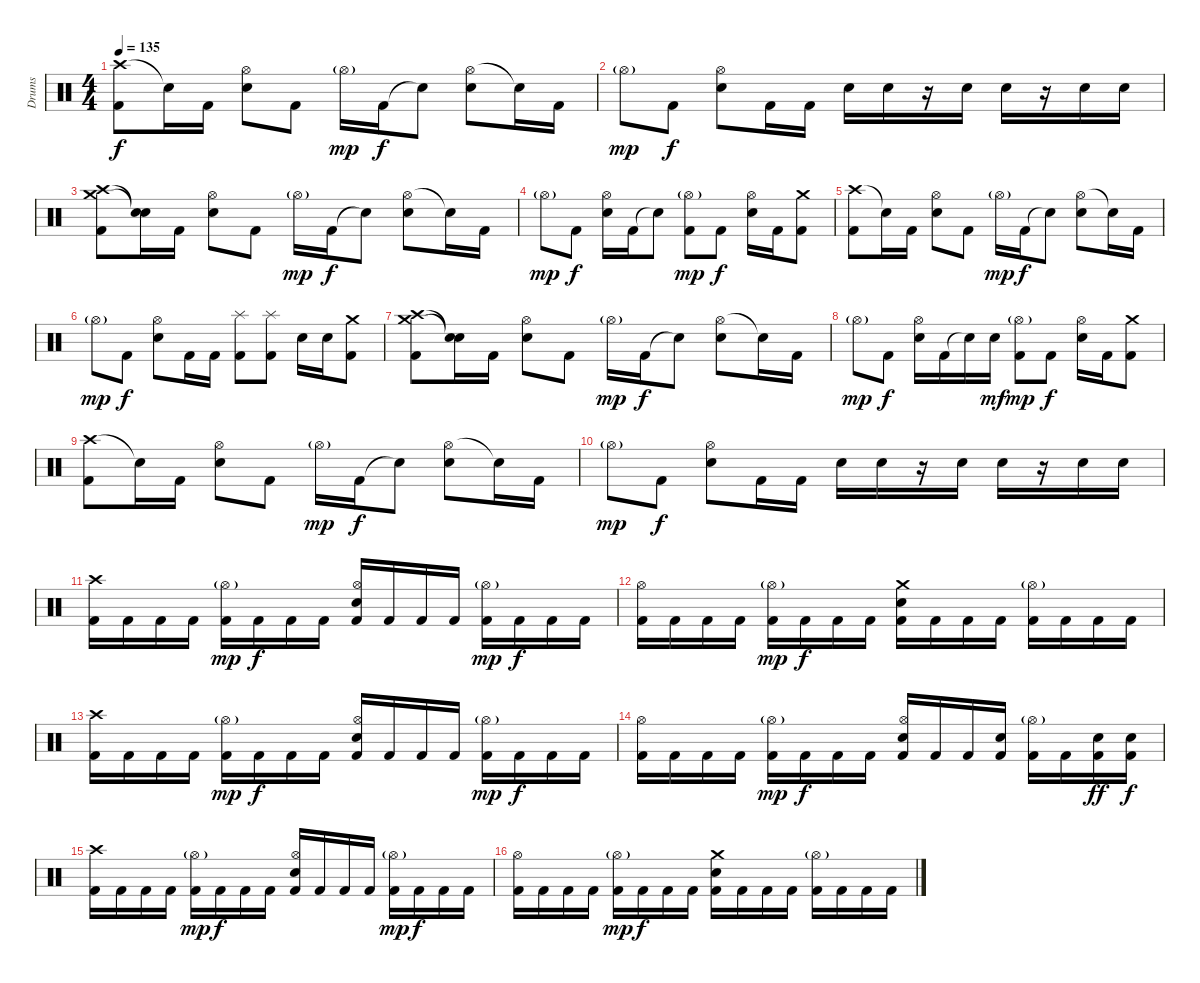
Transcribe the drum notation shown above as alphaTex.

\track ("Drums" "Drums") {instrument percussion}
\staff {score}
\articulation defaults
\ts (4 4)
\tempo 135
\clef neutral
\ks c
("Crash high (hit)" "Kick (hit) 2").8{dy f} "Snare (hit)"{t}.16 "Kick (hit) 2".16 ("Hi-Hat (open)" "Electric Snare (hit)").8 "Kick (hit) 2".8 "Hi-Hat (open)"{g}.16{dy mp} "Kick (hit) 2".16{dy f} "Snare (hit)"{t}.8 ("Hi-Hat (open)" "Electric Snare (hit)").8 "Snare (hit)"{t}.16 "Kick (hit) 2".16 |
"Hi-Hat (open)"{g}.8{dy mp} "Kick (hit) 2".8{dy f} ("Hi-Hat (open)" "Electric Snare (hit)").8 "Kick (hit) 2".16 "Kick (hit) 2".16 "Electric Snare (hit)".16 "Electric Snare (hit)".16 r.16 "Electric Snare (hit)".16 "Electric Snare (hit)".16 r.16 "Electric Snare (hit)".16 "Electric Snare (hit)".16 |
("Crash high (hit)" "Crash medium (hit)" "Kick (hit) 2").8 ("Snare (hit)"{t} "Snare (hit)"{t}).16 "Kick (hit) 2".16 ("Hi-Hat (open)" "Electric Snare (hit)").8 "Kick (hit) 2".8 "Hi-Hat (open)"{g}.16{dy mp} "Kick (hit) 2".16{dy f} "Snare (hit)"{t}.8 ("Hi-Hat (open)" "Electric Snare (hit)").8 "Snare (hit)"{t}.16 "Kick (hit) 2".16 |
"Hi-Hat (open)"{g}.8{dy mp} "Kick (hit) 2".8{dy f} ("Hi-Hat (open)" "Electric Snare (hit)").16 "Kick (hit) 2".16 "Snare (hit)"{t}.8 ("Hi-Hat (open)"{g} "Kick (hit) 2").8{dy mp} "Kick (hit) 2".8{dy f} ("Hi-Hat (open)" "Electric Snare (hit)").16 "Kick (hit) 2".16 ("Crash medium (hit)" "Kick (hit) 2").8 |
("Crash high (hit)" "Kick (hit) 2").8 "Snare (hit)"{t}.16 "Kick (hit) 2".16 ("Hi-Hat (open)" "Electric Snare (hit)").8 "Kick (hit) 2".8 "Hi-Hat (open)"{g}.16{dy mp} "Kick (hit) 2".16{dy f} "Snare (hit)"{t}.8 ("Hi-Hat (open)" "Electric Snare (hit)").8 "Snare (hit)"{t}.16 "Kick (hit) 2".16 |
"Hi-Hat (open)"{g}.8{dy mp} "Kick (hit) 2".8{dy f} ("Hi-Hat (open)" "Electric Snare (hit)").8 "Kick (hit) 2".16 "Kick (hit) 2".16 ("Splash (hit)" "Kick (hit) 2").8 ("Splash (hit)" "Kick (hit) 2").8 "Electric Snare (hit)".16 "Electric Snare (hit)".16 ("Crash medium (hit)" "Kick (hit) 2").8 |
("Crash high (hit)" "Crash medium (hit)" "Kick (hit) 2").8 ("Snare (hit)"{t} "Snare (hit)"{t}).16 "Kick (hit) 2".16 ("Hi-Hat (open)" "Electric Snare (hit)").8 "Kick (hit) 2".8 "Hi-Hat (open)"{g}.16{dy mp} "Kick (hit) 2".16{dy f} "Snare (hit)"{t}.8 ("Hi-Hat (open)" "Electric Snare (hit)").8 "Snare (hit)"{t}.16 "Kick (hit) 2".16 |
"Hi-Hat (open)"{g}.8{dy mp} "Kick (hit) 2".8{dy f} ("Hi-Hat (open)" "Electric Snare (hit)").16 "Kick (hit) 2".16 "Snare (hit)"{t}.16 "Electric Snare (hit)".16{dy mf} ("Hi-Hat (open)"{g} "Kick (hit) 2").8{dy mp} "Kick (hit) 2".8{dy f} ("Hi-Hat (open)" "Electric Snare (hit)").16 "Kick (hit) 2".16 ("Crash medium (hit)" "Kick (hit) 2").8 |
("Crash high (hit)" "Kick (hit) 2").8 "Snare (hit)"{t}.16 "Kick (hit) 2".16 ("Hi-Hat (open)" "Electric Snare (hit)").8 "Kick (hit) 2".8 "Hi-Hat (open)"{g}.16{dy mp} "Kick (hit) 2".16{dy f} "Snare (hit)"{t}.8 ("Hi-Hat (open)" "Electric Snare (hit)").8 "Snare (hit)"{t}.16 "Kick (hit) 2".16 |
"Hi-Hat (open)"{g}.8{dy mp} "Kick (hit) 2".8{dy f} ("Hi-Hat (open)" "Electric Snare (hit)").8 "Kick (hit) 2".16 "Kick (hit) 2".16 "Electric Snare (hit)".16 "Electric Snare (hit)".16 r.16 "Electric Snare (hit)".16 "Electric Snare (hit)".16 r.16 "Electric Snare (hit)".16 "Electric Snare (hit)".16 |
("Crash high (hit)" "Kick (hit) 2").16 "Kick (hit) 2".16 "Kick (hit) 2".16 "Kick (hit) 2".16 ("Hi-Hat (open)"{g} "Kick (hit) 2").16{dy mp} "Kick (hit) 2".16{dy f} "Kick (hit) 2".16 "Kick (hit) 2".16 ("Hi-Hat (open)" "Electric Snare (hit)" "Kick (hit) 2").16 "Kick (hit) 2".16 "Kick (hit) 2".16 "Kick (hit) 2".16 ("Hi-Hat (open)"{g} "Kick (hit) 2").16{dy mp} "Kick (hit) 2".16{dy f} "Kick (hit) 2".16 "Kick (hit) 2".16 |
("Hi-Hat (open)" "Kick (hit) 2").16 "Kick (hit) 2".16 "Kick (hit) 2".16 "Kick (hit) 2".16 ("Hi-Hat (open)"{g} "Kick (hit) 2").16{dy mp} "Kick (hit) 2".16{dy f} "Kick (hit) 2".16 "Kick (hit) 2".16 ("Crash medium (hit)" "Electric Snare (hit)" "Kick (hit) 2").16 "Kick (hit) 2".16 "Kick (hit) 2".16 "Kick (hit) 2".16 ("Hi-Hat (open)"{g} "Kick (hit) 2").16 "Kick (hit) 2".16 "Kick (hit) 2".16 "Kick (hit) 2".16 |
("Crash high (hit)" "Kick (hit) 2").16 "Kick (hit) 2".16 "Kick (hit) 2".16 "Kick (hit) 2".16 ("Hi-Hat (open)"{g} "Kick (hit) 2").16{dy mp} "Kick (hit) 2".16{dy f} "Kick (hit) 2".16 "Kick (hit) 2".16 ("Hi-Hat (open)" "Electric Snare (hit)" "Kick (hit) 2").16 "Kick (hit) 2".16 "Kick (hit) 2".16 "Kick (hit) 2".16 ("Hi-Hat (open)"{g} "Kick (hit) 2").16{dy mp} "Kick (hit) 2".16{dy f} "Kick (hit) 2".16 "Kick (hit) 2".16 |
("Hi-Hat (open)" "Kick (hit) 2").16 "Kick (hit) 2".16 "Kick (hit) 2".16 "Kick (hit) 2".16 ("Hi-Hat (open)"{g} "Kick (hit) 2").16{dy mp} "Kick (hit) 2".16{dy f} "Kick (hit) 2".16 "Kick (hit) 2".16 ("Hi-Hat (open)" "Electric Snare (hit)" "Kick (hit) 2").16 "Kick (hit) 2".16 "Kick (hit) 2".16 ("Electric Snare (hit)" "Kick (hit) 2").16 ("Hi-Hat (open)"{g} "Kick (hit) 2").16 "Kick (hit) 2".16 ("Electric Snare (hit)" "Kick (hit) 2").16{dy ff} ("Electric Snare (hit)" "Kick (hit) 2").16{dy f} |
("Crash high (hit)" "Kick (hit) 2").16 "Kick (hit) 2".16 "Kick (hit) 2".16 "Kick (hit) 2".16 ("Hi-Hat (open)"{g} "Kick (hit) 2").16{dy mp} "Kick (hit) 2".16{dy f} "Kick (hit) 2".16 "Kick (hit) 2".16 ("Hi-Hat (open)" "Electric Snare (hit)" "Kick (hit) 2").16 "Kick (hit) 2".16 "Kick (hit) 2".16 "Kick (hit) 2".16 ("Hi-Hat (open)"{g} "Kick (hit) 2").16{dy mp} "Kick (hit) 2".16{dy f} "Kick (hit) 2".16 "Kick (hit) 2".16 |
("Hi-Hat (open)" "Kick (hit) 2").16 "Kick (hit) 2".16 "Kick (hit) 2".16 "Kick (hit) 2".16 ("Hi-Hat (open)"{g} "Kick (hit) 2").16{dy mp} "Kick (hit) 2".16{dy f} "Kick (hit) 2".16 "Kick (hit) 2".16 ("Crash medium (hit)" "Electric Snare (hit)" "Kick (hit) 2").16 "Kick (hit) 2".16 "Kick (hit) 2".16 "Kick (hit) 2".16 ("Hi-Hat (open)"{g} "Kick (hit) 2").16 "Kick (hit) 2".16 "Kick (hit) 2".16 "Kick (hit) 2".16
